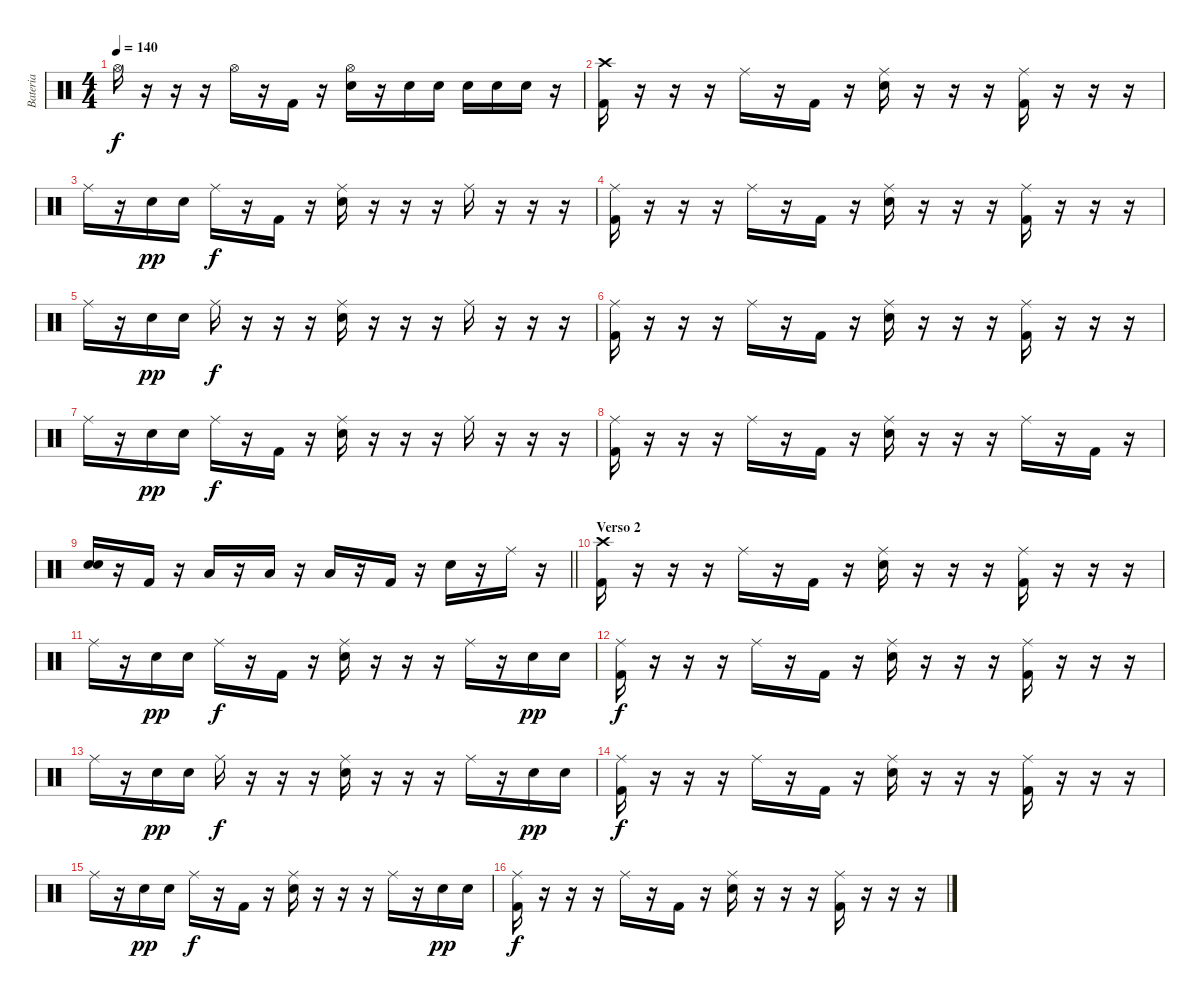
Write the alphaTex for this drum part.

\track ("Bateria" "Bateria") {instrument percussion}
\staff {score}
\articulation defaults
\ts (4 4)
\tempo 140
\clef neutral
\ks c "Hi-Hat (open)".16{dy f}
r.16 r.16 r.16 "Hi-Hat (open)".16 r.16 "Kick (hit) 2".16 r.16 ("Hi-Hat (open)" "Snare (hit) 2").16 r.16 "Snare (hit) 2".16 "Snare (hit) 2".16 "Snare (hit) 2".16 "Snare (hit) 2".16 "Snare (hit) 2".16 r.16 |
("Crash high (hit)" "Kick (hit) 2").16 r.16 r.16 r.16 "Ride (middle)".16 r.16 "Kick (hit) 2".16 r.16 ("Ride (middle)" "Snare (hit) 2").16 r.16 r.16 r.16 ("Ride (middle)" "Kick (hit) 2").16 r.16 r.16 r.16 |
"Ride (middle)".16 r.16 "Electric Snare (hit)".16{dy pp} "Electric Snare (hit)".16 "Ride (middle)".16{dy f} r.16 "Kick (hit) 2".16 r.16 ("Ride (middle)" "Snare (hit) 2").16 r.16 r.16 r.16 "Ride (middle)".16 r.16 r.16 r.16 |
("Ride (middle)" "Kick (hit) 2").16 r.16 r.16 r.16 "Ride (middle)".16 r.16 "Kick (hit) 2".16 r.16 ("Ride (middle)" "Snare (hit) 2").16 r.16 r.16 r.16 ("Ride (middle)" "Kick (hit) 2").16 r.16 r.16 r.16 |
"Ride (middle)".16 r.16 "Electric Snare (hit)".16{dy pp} "Electric Snare (hit)".16 "Ride (middle)".16{dy f} r.16 r.16 r.16 ("Ride (middle)" "Snare (hit) 2").16 r.16 r.16 r.16 "Ride (middle)".16 r.16 r.16 r.16 |
("Ride (middle)" "Kick (hit) 2").16 r.16 r.16 r.16 "Ride (middle)".16 r.16 "Kick (hit) 2".16 r.16 ("Ride (middle)" "Snare (hit) 2").16 r.16 r.16 r.16 ("Ride (middle)" "Kick (hit) 2").16 r.16 r.16 r.16 |
"Ride (middle)".16 r.16 "Electric Snare (hit)".16{dy pp} "Electric Snare (hit)".16 "Ride (middle)".16{dy f} r.16 "Kick (hit) 2".16 r.16 ("Ride (middle)" "Snare (hit) 2").16 r.16 r.16 r.16 "Ride (middle)".16 r.16 r.16 r.16 |
("Ride (middle)" "Kick (hit) 2").16 r.16 r.16 r.16 "Ride (middle)".16 r.16 "Kick (hit) 2".16 r.16 ("Ride (middle)" "Snare (hit) 2").16 r.16 r.16 r.16 "Ride (middle)".16 r.16 "Kick (hit) 2".16 r.16 |
\barLineRight lightlight
("Snare (hit) 2" "Electric Snare (hit)").16 r.16 "Kick (hit) 2".16 r.16 "Low Floor Tom (hit)".16 r.16 "Low Tom (hit)".16 r.16 "Low Floor Tom (hit)".16 r.16 "Kick (hit) 2".16 r.16 "Snare (hit) 2".16 r.16 "Ride (middle)".16 r.16 |
\section ("" "Verso 2")
("Crash high (hit)" "Kick (hit) 2").16 r.16 r.16 r.16 "Ride (middle)".16 r.16 "Kick (hit) 2".16 r.16 ("Ride (middle)" "Snare (hit) 2").16 r.16 r.16 r.16 ("Ride (middle)" "Kick (hit) 2").16 r.16 r.16 r.16 |
"Ride (middle)".16 r.16 "Electric Snare (hit)".16{dy pp} "Electric Snare (hit)".16 "Ride (middle)".16{dy f} r.16 "Kick (hit) 2".16 r.16 ("Ride (middle)" "Snare (hit) 2").16 r.16 r.16 r.16 "Ride (middle)".16 r.16 "Electric Snare (hit)".16{dy pp} "Electric Snare (hit)".16 |
("Ride (middle)" "Kick (hit) 2").16{dy f} r.16 r.16 r.16 "Ride (middle)".16 r.16 "Kick (hit) 2".16 r.16 ("Ride (middle)" "Snare (hit) 2").16 r.16 r.16 r.16 ("Ride (middle)" "Kick (hit) 2").16 r.16 r.16 r.16 |
"Ride (middle)".16 r.16 "Electric Snare (hit)".16{dy pp} "Electric Snare (hit)".16 "Ride (middle)".16{dy f} r.16 r.16 r.16 ("Ride (middle)" "Snare (hit) 2").16 r.16 r.16 r.16 "Ride (middle)".16 r.16 "Electric Snare (hit)".16{dy pp} "Electric Snare (hit)".16 |
("Ride (middle)" "Kick (hit) 2").16{dy f} r.16 r.16 r.16 "Ride (middle)".16 r.16 "Kick (hit) 2".16 r.16 ("Ride (middle)" "Snare (hit) 2").16 r.16 r.16 r.16 ("Ride (middle)" "Kick (hit) 2").16 r.16 r.16 r.16 |
"Ride (middle)".16 r.16 "Electric Snare (hit)".16{dy pp} "Electric Snare (hit)".16 "Ride (middle)".16{dy f} r.16 "Kick (hit) 2".16 r.16 ("Ride (middle)" "Snare (hit) 2").16 r.16 r.16 r.16 "Ride (middle)".16 r.16 "Electric Snare (hit)".16{dy pp} "Electric Snare (hit)".16 |
("Ride (middle)" "Kick (hit) 2").16{dy f} r.16 r.16 r.16 "Ride (middle)".16 r.16 "Kick (hit) 2".16 r.16 ("Ride (middle)" "Snare (hit) 2").16 r.16 r.16 r.16 ("Ride (middle)" "Kick (hit) 2").16 r.16 r.16 r.16
